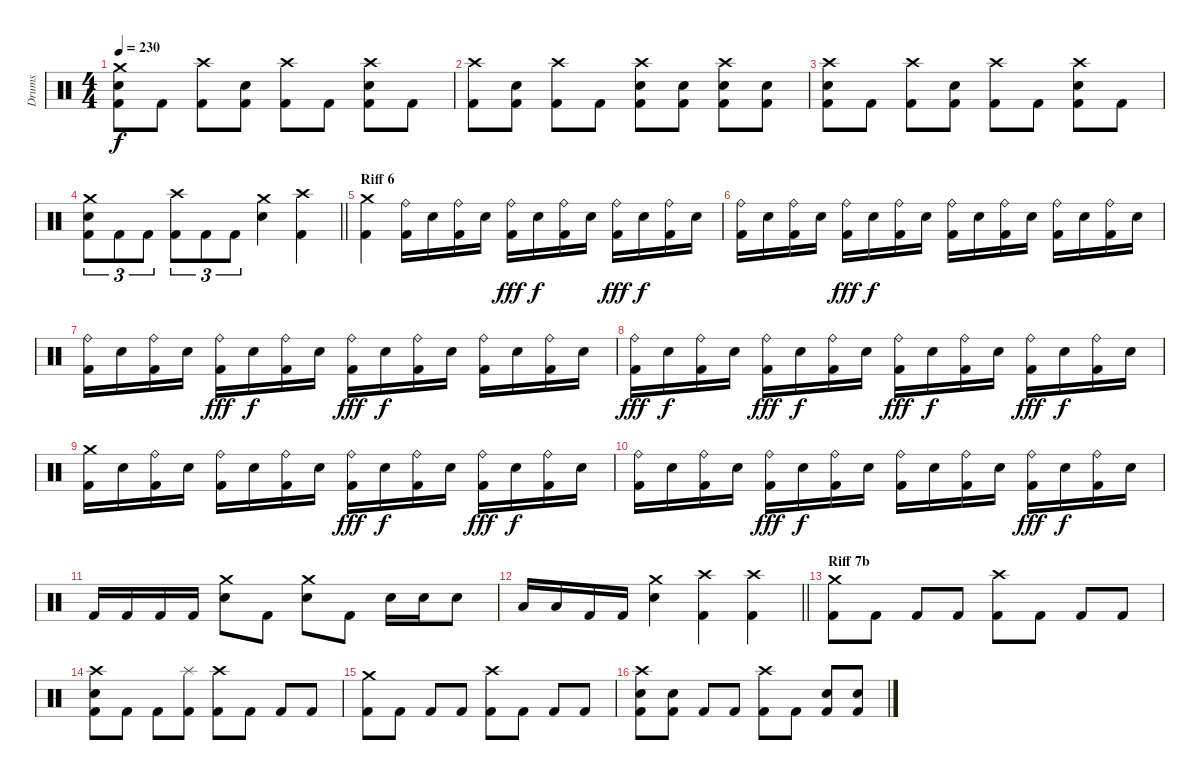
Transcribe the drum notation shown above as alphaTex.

\track ("Drums" "Drums") {instrument percussion}
\staff {score}
\articulation defaults
\ts (4 4)
\tempo 230
\clef neutral
\ks c
("Crash medium (hit)" "Kick (hit) 2" "Electric Snare (hit)").8{dy f} "Kick (hit) 2".8 ("Crash high (hit)" "Kick (hit) 2").8 ("Electric Snare (hit)" "Kick (hit) 2").8 ("Crash high (hit)" "Kick (hit) 2").8 "Kick (hit) 2".8 ("Crash high (hit)" "Kick (hit) 2" "Electric Snare (hit)").8 "Kick (hit) 2".8 |
("Kick (hit) 2" "Crash high (hit)").8 ("Kick (hit) 2" "Electric Snare (hit)").8 ("Kick (hit) 2" "Crash high (hit)").8 "Kick (hit) 2".8 ("Kick (hit) 2" "Crash high (hit)" "Electric Snare (hit)").8 ("Kick (hit) 2" "Electric Snare (hit)").8 ("Kick (hit) 2" "Crash high (hit)" "Electric Snare (hit)").8 ("Kick (hit) 2" "Electric Snare (hit)").8 |
("Crash high (hit)" "Kick (hit) 2" "Electric Snare (hit)").8 "Kick (hit) 2".8 ("Crash high (hit)" "Kick (hit) 2").8 ("Electric Snare (hit)" "Kick (hit) 2").8 ("Crash high (hit)" "Kick (hit) 2").8 "Kick (hit) 2".8 ("Crash high (hit)" "Kick (hit) 2" "Electric Snare (hit)").8 "Kick (hit) 2".8 |
\barLineRight lightlight
("Electric Snare (hit)" "Crash medium (hit)" "Kick (hit) 2").8{tu (3 2)} "Kick (hit) 2".8{tu (3 2)} "Kick (hit) 2".8{tu (3 2)} ("Crash high (hit)" "Kick (hit) 2").8{tu (3 2)} "Kick (hit) 2".8{tu (3 2)} "Kick (hit) 2".8{tu (3 2)} ("Electric Snare (hit)" "Crash medium (hit)").4 ("Kick (hit) 2" "Crash high (hit)").4 |
\section ("" "Riff 6")
("Kick (hit) 2" "Crash medium (hit)").4 ("Ride (bell)" "Kick (hit) 2").16 "Electric Snare (hit)".16 ("Ride (bell)" "Kick (hit) 2").16 "Electric Snare (hit)".16 ("Ride (bell)" "Kick (hit) 2").16{dy fff} "Electric Snare (hit)".16{dy f} ("Ride (bell)" "Kick (hit) 2").16 "Electric Snare (hit)".16 ("Ride (bell)" "Kick (hit) 2").16{dy fff} "Electric Snare (hit)".16{dy f} ("Ride (bell)" "Kick (hit) 2").16 "Electric Snare (hit)".16 |
("Ride (bell)" "Kick (hit) 2").16 "Electric Snare (hit)".16 ("Ride (bell)" "Kick (hit) 2").16 "Electric Snare (hit)".16 ("Ride (bell)" "Kick (hit) 2").16{dy fff} "Electric Snare (hit)".16{dy f} ("Ride (bell)" "Kick (hit) 2").16 "Electric Snare (hit)".16 ("Ride (bell)" "Kick (hit) 2").16 "Electric Snare (hit)".16 ("Ride (bell)" "Kick (hit) 2").16 "Electric Snare (hit)".16 ("Ride (bell)" "Kick (hit) 2").16 "Electric Snare (hit)".16 ("Ride (bell)" "Kick (hit) 2").16 "Electric Snare (hit)".16 |
("Ride (bell)" "Kick (hit) 2").16 "Electric Snare (hit)".16 ("Ride (bell)" "Kick (hit) 2").16 "Electric Snare (hit)".16 ("Ride (bell)" "Kick (hit) 2").16{dy fff} "Electric Snare (hit)".16{dy f} ("Ride (bell)" "Kick (hit) 2").16 "Electric Snare (hit)".16 ("Ride (bell)" "Kick (hit) 2").16{dy fff} "Electric Snare (hit)".16{dy f} ("Ride (bell)" "Kick (hit) 2").16 "Electric Snare (hit)".16 ("Ride (bell)" "Kick (hit) 2").16 "Electric Snare (hit)".16 ("Ride (bell)" "Kick (hit) 2").16 "Electric Snare (hit)".16 |
("Ride (bell)" "Kick (hit) 2").16{dy fff} "Electric Snare (hit)".16{dy f} ("Ride (bell)" "Kick (hit) 2").16 "Electric Snare (hit)".16 ("Ride (bell)" "Kick (hit) 2").16{dy fff} "Electric Snare (hit)".16{dy f} ("Ride (bell)" "Kick (hit) 2").16 "Electric Snare (hit)".16 ("Ride (bell)" "Kick (hit) 2").16{dy fff} "Electric Snare (hit)".16{dy f} ("Ride (bell)" "Kick (hit) 2").16 "Electric Snare (hit)".16 ("Ride (bell)" "Kick (hit) 2").16{dy fff} "Electric Snare (hit)".16{dy f} ("Ride (bell)" "Kick (hit) 2").16 "Electric Snare (hit)".16 |
("Crash medium (hit)" "Kick (hit) 2").16 "Electric Snare (hit)".16 ("Ride (bell)" "Kick (hit) 2").16 "Electric Snare (hit)".16 ("Ride (bell)" "Kick (hit) 2").16 "Electric Snare (hit)".16 ("Ride (bell)" "Kick (hit) 2").16 "Electric Snare (hit)".16 ("Ride (bell)" "Kick (hit) 2").16{dy fff} "Electric Snare (hit)".16{dy f} ("Ride (bell)" "Kick (hit) 2").16 "Electric Snare (hit)".16 ("Ride (bell)" "Kick (hit) 2").16{dy fff} "Electric Snare (hit)".16{dy f} ("Ride (bell)" "Kick (hit) 2").16 "Electric Snare (hit)".16 |
("Ride (bell)" "Kick (hit) 2").16 "Electric Snare (hit)".16 ("Ride (bell)" "Kick (hit) 2").16 "Electric Snare (hit)".16 ("Ride (bell)" "Kick (hit) 2").16{dy fff} "Electric Snare (hit)".16{dy f} ("Ride (bell)" "Kick (hit) 2").16 "Electric Snare (hit)".16 ("Ride (bell)" "Kick (hit) 2").16 "Electric Snare (hit)".16 ("Ride (bell)" "Kick (hit) 2").16 "Electric Snare (hit)".16 ("Ride (bell)" "Kick (hit) 2").16{dy fff} "Electric Snare (hit)".16{dy f} ("Ride (bell)" "Kick (hit) 2").16 "Electric Snare (hit)".16 |
"Kick (hit) 2".16 "Kick (hit) 2".16 "Kick (hit) 2".16 "Kick (hit) 2".16 ("Electric Snare (hit)" "Crash medium (hit)").8 "Kick (hit) 2".8 ("Electric Snare (hit)" "Crash medium (hit)").8 "Kick (hit) 2".8 "Electric Snare (hit)".16 "Electric Snare (hit)".16 "Electric Snare (hit)".8 |
\barLineRight lightlight "Low Tom (hit)".16 "Low Tom (hit)".16 "Kick (hit) 2".16 "Kick (hit) 2".16
("Electric Snare (hit)" "Crash medium (hit)").4 ("Kick (hit) 2" "Crash high (hit)").4 ("Kick (hit) 2" "Crash high (hit)").4 |
\section ("" "Riff 7b")
("Crash medium (hit)" "Kick (hit) 2").8 "Kick (hit) 2".8 "Kick (hit) 2".8 "Kick (hit) 2".8 ("Crash high (hit)" "Kick (hit) 2").8 "Kick (hit) 2".8 "Kick (hit) 2".8 "Kick (hit) 2".8 |
("Crash high (hit)" "Electric Snare (hit)" "Kick (hit) 2").8 "Kick (hit) 2".8 "Kick (hit) 2".8 ("Splash (hit)" "Kick (hit) 2").8 ("Crash high (hit)" "Kick (hit) 2").8 "Kick (hit) 2".8 "Kick (hit) 2".8 "Kick (hit) 2".8 |
("Crash medium (hit)" "Kick (hit) 2").8 "Kick (hit) 2".8 "Kick (hit) 2".8 "Kick (hit) 2".8 ("Crash high (hit)" "Kick (hit) 2").8 "Kick (hit) 2".8 "Kick (hit) 2".8 "Kick (hit) 2".8 |
("Crash high (hit)" "Electric Snare (hit)" "Kick (hit) 2").8 ("Electric Snare (hit)" "Kick (hit) 2").8 "Kick (hit) 2".8 "Kick (hit) 2".8 ("Crash high (hit)" "Kick (hit) 2").8 "Kick (hit) 2".8 ("Electric Snare (hit)" "Kick (hit) 2").8 ("Electric Snare (hit)" "Kick (hit) 2").8
